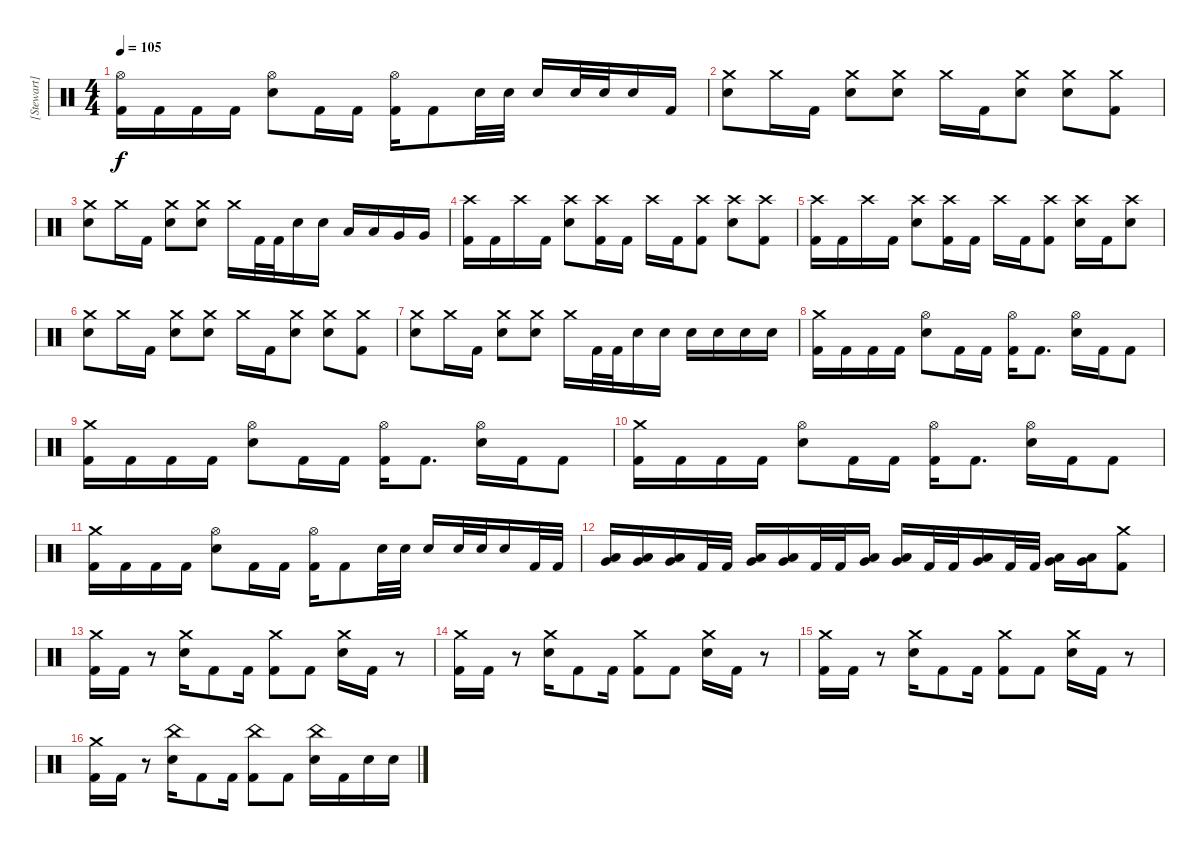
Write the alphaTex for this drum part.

\track ("[Stewart]" "[Stewart]") {instrument percussion}
\staff {score}
\articulation defaults
\ts (4 4)
\tempo 105
\clef neutral
\ks c
("Hi-Hat (open)" "Kick (hit) 2").16{dy f} "Kick (hit) 2".16 "Kick (hit) 2".16 "Kick (hit) 2".16 ("Hi-Hat (open)" "Electric Snare (hit)").8 "Kick (hit) 2".16 "Kick (hit) 2".16 ("Hi-Hat (open)" "Kick (hit) 2").16 "Kick (hit) 2".8 "Electric Snare (hit)".32 "Electric Snare (hit)".32 "Electric Snare (hit)".16 "Electric Snare (hit)".32 "Electric Snare (hit)".32 "Electric Snare (hit)".16 "Kick (hit) 2".16 |
("Crash medium (hit)" "Electric Snare (hit)").8 "Crash medium (hit)".16 "Kick (hit) 2".16 ("Crash medium (hit)" "Electric Snare (hit)").8 ("Crash medium (hit)" "Electric Snare (hit)").8 "Crash medium (hit)".16 "Kick (hit) 2".16 ("Crash medium (hit)" "Electric Snare (hit)").8 ("Crash medium (hit)" "Electric Snare (hit)").8 ("Crash medium (hit)" "Kick (hit) 2").8 |
("Crash medium (hit)" "Electric Snare (hit)").8 "Crash medium (hit)".16 "Kick (hit) 2".16 ("Crash medium (hit)" "Electric Snare (hit)").8 ("Crash medium (hit)" "Electric Snare (hit)").8 "Crash medium (hit)".16 "Kick (hit) 2".32 "Kick (hit) 2".32 "Electric Snare (hit)".16 "Electric Snare (hit)".16 "Low Tom (hit)".16 "Low Tom (hit)".16 "Very Low Tom (hit)".16 "Very Low Tom (hit)".16 |
("Crash high (hit)" "Kick (hit) 2").16 "Kick (hit) 2".16 "Crash high (hit)".16 "Kick (hit) 2".16 ("Crash high (hit)" "Electric Snare (hit)").8 ("Crash high (hit)" "Kick (hit) 2").16 "Kick (hit) 2".16 "Crash high (hit)".16 "Kick (hit) 2".16 ("Crash high (hit)" "Kick (hit) 2").8 ("Crash high (hit)" "Electric Snare (hit)").8 ("Crash high (hit)" "Kick (hit) 2").8 |
("Crash high (hit)" "Kick (hit) 2").16 "Kick (hit) 2".16 "Crash high (hit)".16 "Kick (hit) 2".16 ("Crash high (hit)" "Electric Snare (hit)").8 ("Crash high (hit)" "Kick (hit) 2").16 "Kick (hit) 2".16 "Crash high (hit)".16 "Kick (hit) 2".16 ("Crash high (hit)" "Kick (hit) 2").8 ("Crash high (hit)" "Electric Snare (hit)").16 "Kick (hit) 2".16 ("Crash high (hit)" "Electric Snare (hit)").8 |
("Crash medium (hit)" "Electric Snare (hit)").8 "Crash medium (hit)".16 "Kick (hit) 2".16 ("Crash medium (hit)" "Electric Snare (hit)").8 ("Crash medium (hit)" "Electric Snare (hit)").8 "Crash medium (hit)".16 "Kick (hit) 2".16 ("Crash medium (hit)" "Electric Snare (hit)").8 ("Crash medium (hit)" "Electric Snare (hit)").8 ("Crash medium (hit)" "Kick (hit) 2").8 |
("Crash medium (hit)" "Electric Snare (hit)").8 "Crash medium (hit)".16 "Kick (hit) 2".16 ("Crash medium (hit)" "Electric Snare (hit)").8 ("Crash medium (hit)" "Electric Snare (hit)").8 "Crash medium (hit)".16 "Kick (hit) 2".32 "Kick (hit) 2".32 "Electric Snare (hit)".16 "Electric Snare (hit)".16 "Electric Snare (hit)".16 "Electric Snare (hit)".16 "Electric Snare (hit)".16 "Electric Snare (hit)".16 |
("Crash medium (hit)" "Kick (hit) 2").16 "Kick (hit) 2".16 "Kick (hit) 2".16 "Kick (hit) 2".16 ("Hi-Hat (open)" "Electric Snare (hit)").8 "Kick (hit) 2".16 "Kick (hit) 2".16 ("Hi-Hat (open)" "Kick (hit) 2").16 "Kick (hit) 2".8{d} ("Hi-Hat (open)" "Electric Snare (hit)").16 "Kick (hit) 2".16 "Kick (hit) 2".8 |
("Crash medium (hit)" "Kick (hit) 2").16 "Kick (hit) 2".16 "Kick (hit) 2".16 "Kick (hit) 2".16 ("Hi-Hat (open)" "Electric Snare (hit)").8 "Kick (hit) 2".16 "Kick (hit) 2".16 ("Hi-Hat (open)" "Kick (hit) 2").16 "Kick (hit) 2".8{d} ("Hi-Hat (open)" "Electric Snare (hit)").16 "Kick (hit) 2".16 "Kick (hit) 2".8 |
("Crash medium (hit)" "Kick (hit) 2").16 "Kick (hit) 2".16 "Kick (hit) 2".16 "Kick (hit) 2".16 ("Hi-Hat (open)" "Electric Snare (hit)").8 "Kick (hit) 2".16 "Kick (hit) 2".16 ("Hi-Hat (open)" "Kick (hit) 2").16 "Kick (hit) 2".8{d} ("Hi-Hat (open)" "Electric Snare (hit)").16 "Kick (hit) 2".16 "Kick (hit) 2".8 |
("Crash medium (hit)" "Kick (hit) 2").16 "Kick (hit) 2".16 "Kick (hit) 2".16 "Kick (hit) 2".16 ("Hi-Hat (open)" "Electric Snare (hit)").8 "Kick (hit) 2".16 "Kick (hit) 2".16 ("Hi-Hat (open)" "Kick (hit) 2").16 "Kick (hit) 2".8 "Electric Snare (hit)".32 "Electric Snare (hit)".32 "Electric Snare (hit)".16 "Electric Snare (hit)".32 "Electric Snare (hit)".32 "Electric Snare (hit)".16 "Kick (hit) 2".32 "Kick (hit) 2".32 |
("Low Tom (hit)" "Very Low Tom (hit)").16 ("Low Tom (hit)" "Very Low Tom (hit)").16 ("Low Tom (hit)" "Very Low Tom (hit)").16 "Kick (hit) 2".32 "Kick (hit) 2".32 ("Low Tom (hit)" "Very Low Tom (hit)").16 ("Low Tom (hit)" "Very Low Tom (hit)").16 "Kick (hit) 2".32 "Kick (hit) 2".32 ("Low Tom (hit)" "Very Low Tom (hit)").16 ("Low Tom (hit)" "Very Low Tom (hit)").16 "Kick (hit) 2".32 "Kick (hit) 2".32 ("Low Tom (hit)" "Very Low Tom (hit)").16 "Kick (hit) 2".32 "Kick (hit) 2".32 ("Low Tom (hit)" "Very Low Tom (hit)").16 ("Low Tom (hit)" "Very Low Tom (hit)").16 ("Crash medium (hit)" "Kick (hit) 2").8 |
("Crash medium (hit)" "Kick (hit) 2").16 "Kick (hit) 2".16 r.8 ("Crash medium (hit)" "Electric Snare (hit)").16 "Kick (hit) 2".8 "Kick (hit) 2".16 ("Crash medium (hit)" "Kick (hit) 2").8 "Kick (hit) 2".8 ("Crash medium (hit)" "Electric Snare (hit)").16 "Kick (hit) 2".16 r.8 |
("Crash medium (hit)" "Kick (hit) 2").16 "Kick (hit) 2".16 r.8 ("Crash medium (hit)" "Electric Snare (hit)").16 "Kick (hit) 2".8 "Kick (hit) 2".16 ("Crash medium (hit)" "Kick (hit) 2").8 "Kick (hit) 2".8 ("Crash medium (hit)" "Electric Snare (hit)").16 "Kick (hit) 2".16 r.8 |
("Crash medium (hit)" "Kick (hit) 2").16 "Kick (hit) 2".16 r.8 ("Crash medium (hit)" "Electric Snare (hit)").16 "Kick (hit) 2".8 "Kick (hit) 2".16 ("Crash medium (hit)" "Kick (hit) 2").8 "Kick (hit) 2".8 ("Crash medium (hit)" "Electric Snare (hit)").16 "Kick (hit) 2".16 r.8 |
("Crash medium (hit)" "Kick (hit) 2").16 "Kick (hit) 2".16 r.8 ("China (hit)" "Electric Snare (hit)").16 "Kick (hit) 2".8 "Kick (hit) 2".16 ("China (hit)" "Kick (hit) 2").8 "Kick (hit) 2".8 ("China (hit)" "Electric Snare (hit)").16 "Kick (hit) 2".16 "Electric Snare (hit)".16 "Electric Snare (hit)".16
